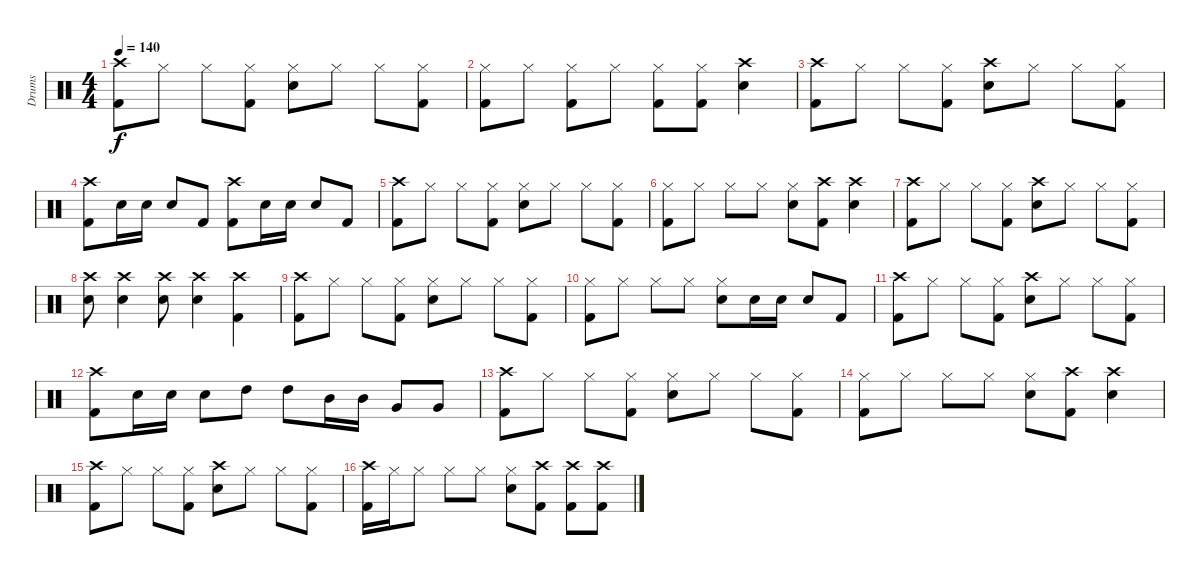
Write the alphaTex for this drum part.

\track ("Drums" "Drums") {instrument percussion}
\staff {score}
\articulation defaults
\ts (4 4)
\tempo 140
\clef neutral
\ks c
("Crash high (hit)" "Kick (hit) 2").8{dy f} "Hi-Hat (closed)".8 "Hi-Hat (closed)".8 ("Hi-Hat (closed)" "Kick (hit) 2").8 ("Hi-Hat (closed)" "Snare (hit) 2").8 "Hi-Hat (closed)".8 "Hi-Hat (closed)".8 ("Hi-Hat (closed)" "Kick (hit) 2").8 |
("Hi-Hat (closed)" "Kick (hit) 2").8 "Hi-Hat (closed)".8 ("Hi-Hat (closed)" "Kick (hit) 2").8 "Hi-Hat (closed)".8 ("Hi-Hat (closed)" "Kick (hit) 2").8 ("Hi-Hat (closed)" "Kick (hit) 2").8 ("Crash high (hit)" "Snare (hit) 2").4 |
("Crash high (hit)" "Kick (hit) 2").8 "Hi-Hat (closed)".8 "Hi-Hat (closed)".8 ("Hi-Hat (closed)" "Kick (hit) 2").8 ("Crash high (hit)" "Snare (hit) 2").8 "Hi-Hat (closed)".8 "Hi-Hat (closed)".8 ("Hi-Hat (closed)" "Kick (hit) 2").8 |
("Crash high (hit)" "Kick (hit) 2").8 "Snare (hit) 2".16 "Snare (hit) 2".16 "Snare (hit) 2".8 "Kick (hit) 2".8 ("Crash high (hit)" "Kick (hit) 2").8 "Snare (hit) 2".16 "Snare (hit) 2".16 "Snare (hit) 2".8 "Kick (hit) 2".8 |
("Crash high (hit)" "Kick (hit) 2").8 "Hi-Hat (closed)".8 "Hi-Hat (closed)".8 ("Hi-Hat (closed)" "Kick (hit) 2").8 ("Hi-Hat (closed)" "Snare (hit) 2").8 "Hi-Hat (closed)".8 "Hi-Hat (closed)".8 ("Hi-Hat (closed)" "Kick (hit) 2").8 |
("Hi-Hat (closed)" "Kick (hit) 2").8 "Hi-Hat (closed)".8 "Hi-Hat (closed)".8 "Hi-Hat (closed)".8 ("Hi-Hat (closed)" "Snare (hit) 2").8 ("Crash high (hit)" "Kick (hit) 2").8 ("Crash high (hit)" "Snare (hit) 2").4 |
("Crash high (hit)" "Kick (hit) 2").8 "Hi-Hat (closed)".8 "Hi-Hat (closed)".8 ("Hi-Hat (closed)" "Kick (hit) 2").8 ("Crash high (hit)" "Snare (hit) 2").8 "Hi-Hat (closed)".8 "Hi-Hat (closed)".8 ("Hi-Hat (closed)" "Kick (hit) 2").8 |
("Crash high (hit)" "Snare (hit) 2").8 ("Crash high (hit)" "Snare (hit) 2").4 ("Crash high (hit)" "Snare (hit) 2").8 ("Crash high (hit)" "Snare (hit) 2").4 ("Crash high (hit)" "Kick (hit) 2").4 |
("Crash high (hit)" "Kick (hit) 2").8 "Hi-Hat (closed)".8 "Hi-Hat (closed)".8 ("Hi-Hat (closed)" "Kick (hit) 2").8 ("Hi-Hat (closed)" "Snare (hit) 2").8 "Hi-Hat (closed)".8 "Hi-Hat (closed)".8 ("Hi-Hat (closed)" "Kick (hit) 2").8 |
("Hi-Hat (closed)" "Kick (hit) 2").8 "Hi-Hat (closed)".8 "Hi-Hat (closed)".8 "Hi-Hat (closed)".8 ("Hi-Hat (closed)" "Snare (hit) 2").8 "Snare (hit) 2".16 "Snare (hit) 2".16 "Snare (hit) 2".8 "Kick (hit) 2".8 |
("Crash high (hit)" "Kick (hit) 2").8 "Hi-Hat (closed)".8 "Hi-Hat (closed)".8 ("Hi-Hat (closed)" "Kick (hit) 2").8 ("Crash high (hit)" "Snare (hit) 2").8 "Hi-Hat (closed)".8 "Hi-Hat (closed)".8 ("Hi-Hat (closed)" "Kick (hit) 2").8 |
("Crash high (hit)" "Kick (hit) 2").8 "Snare (hit) 2".16 "Snare (hit) 2".16 "Snare (hit) 2".8 "High Tom (hit)".8 "High Tom (hit)".8 "Mid Tom (hit)".16 "Mid Tom (hit)".16 "Very Low Tom (hit)".8 "Very Low Tom (hit)".8 |
("Crash high (hit)" "Kick (hit) 2").8 "Hi-Hat (closed)".8 "Hi-Hat (closed)".8 ("Hi-Hat (closed)" "Kick (hit) 2").8 ("Hi-Hat (closed)" "Snare (hit) 2").8 "Hi-Hat (closed)".8 "Hi-Hat (closed)".8 ("Hi-Hat (closed)" "Kick (hit) 2").8 |
("Hi-Hat (closed)" "Kick (hit) 2").8 "Hi-Hat (closed)".8 "Hi-Hat (closed)".8 "Hi-Hat (closed)".8 ("Hi-Hat (closed)" "Snare (hit) 2").8 ("Crash high (hit)" "Kick (hit) 2").8 ("Crash high (hit)" "Snare (hit) 2").4 |
("Crash high (hit)" "Kick (hit) 2").8 "Hi-Hat (closed)".8 "Hi-Hat (closed)".8 ("Hi-Hat (closed)" "Kick (hit) 2").8 ("Crash high (hit)" "Snare (hit) 2").8 "Hi-Hat (closed)".8 "Hi-Hat (closed)".8 ("Hi-Hat (closed)" "Kick (hit) 2").8 |
("Crash high (hit)" "Kick (hit) 2").16 "Hi-Hat (closed)".16 "Hi-Hat (closed)".8 "Hi-Hat (closed)".8 "Hi-Hat (closed)".8 ("Hi-Hat (closed)" "Snare (hit) 2").8 ("Crash high (hit)" "Kick (hit) 2").8 ("Crash high (hit)" "Kick (hit) 2").8 ("Crash high (hit)" "Kick (hit) 2").8
